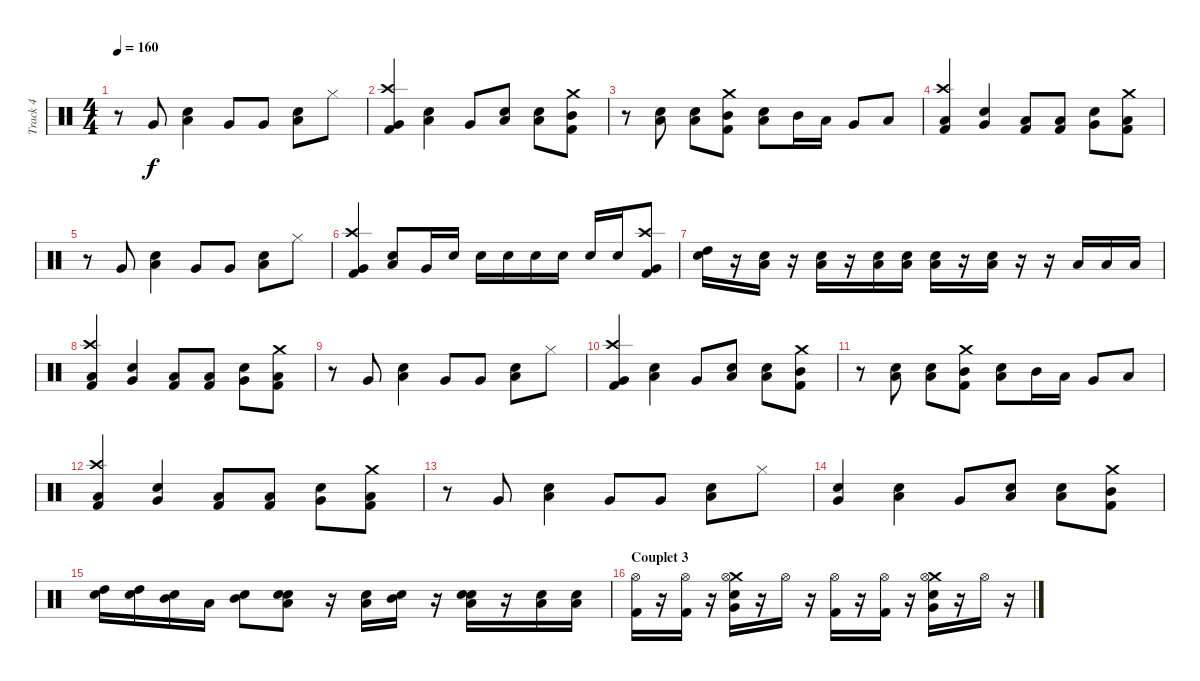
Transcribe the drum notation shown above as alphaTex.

\track ("Track 4" "Track 4") {instrument percussion}
\staff {score}
\articulation defaults
\ts (4 4)
\tempo 160
\clef neutral
\ks c
r.8{dy f} "Very Low Tom (hit)".8 ("Low Tom (hit)" "Electric Snare (hit)").4 "Very Low Tom (hit)".8 "Very Low Tom (hit)".8 ("Low Tom (hit)" "Electric Snare (hit)").8 "Hi-Hat (closed)".8 |
("Very Low Tom (hit)" "Crash high (hit)" "Kick (hit) 2").4 ("Low Tom (hit)" "Electric Snare (hit)").4 "Very Low Tom (hit)".8 ("Low Tom (hit)" "Electric Snare (hit)").8 ("Low Tom (hit)" "Electric Snare (hit)").8 ("Mid Tom (hit)" "Kick (hit) 2" "Crash medium (hit)").8 |
r.8 ("Low Tom (hit)" "Electric Snare (hit)").8 ("Low Tom (hit)" "Electric Snare (hit)").8 ("Mid Tom (hit)" "Kick (hit) 2" "Crash medium (hit)").8 ("Low Tom (hit)" "Electric Snare (hit)").8 "Mid Tom (hit)".16 "Low Tom (hit)".16 "Very Low Tom (hit)".8 "Low Floor Tom (hit)".8 |
("Low Tom (hit)" "Crash high (hit)" "Kick (hit) 2").4 ("Electric Snare (hit)" "Very Low Tom (hit)").4 ("Low Tom (hit)" "Kick (hit) 2").8 ("Low Tom (hit)" "Kick (hit) 2").8 ("Electric Snare (hit)" "Very Low Tom (hit)").8 ("Low Tom (hit)" "Kick (hit) 2" "Crash medium (hit)").8 |
r.8 "Very Low Tom (hit)".8 ("Low Tom (hit)" "Electric Snare (hit)").4 "Very Low Tom (hit)".8 "Very Low Tom (hit)".8 ("Low Tom (hit)" "Electric Snare (hit)").8 "Hi-Hat (closed)".8 |
("Very Low Tom (hit)" "Crash high (hit)" "Kick (hit) 2").4 ("Low Tom (hit)" "Electric Snare (hit)").8 "Very Low Tom (hit)".16 "Electric Snare (hit)".16 "Electric Snare (hit)".16 "Electric Snare (hit)".16 "Electric Snare (hit)".16 "Electric Snare (hit)".16 "Electric Snare (hit)".16 "Electric Snare (hit)".16 ("Very Low Tom (hit)" "Kick (hit) 2" "Crash high (hit)").8 |
("High Tom (hit)" "Electric Snare (hit)").16 r.16 ("Low Tom (hit)" "Electric Snare (hit)").16 r.16 ("Low Floor Tom (hit)" "Electric Snare (hit)").16 r.16 ("Snare (hit) 2" "Low Floor Tom (hit)").16 ("Snare (hit) 2" "Low Floor Tom (hit)").16 ("Snare (hit) 2" "Low Floor Tom (hit)").16 r.16 ("Low Tom (hit)" "Electric Snare (hit)").16 r.16 r.16 "Low Floor Tom (hit)".16 "Low Floor Tom (hit)".16 "Low Floor Tom (hit)".16 |
("Low Tom (hit)" "Crash high (hit)" "Kick (hit) 2").4 ("Electric Snare (hit)" "Very Low Tom (hit)").4 ("Low Tom (hit)" "Kick (hit) 2").8 ("Low Tom (hit)" "Kick (hit) 2").8 ("Electric Snare (hit)" "Very Low Tom (hit)").8 ("Low Tom (hit)" "Kick (hit) 2" "Crash medium (hit)").8 |
r.8 "Very Low Tom (hit)".8 ("Low Tom (hit)" "Electric Snare (hit)").4 "Very Low Tom (hit)".8 "Very Low Tom (hit)".8 ("Low Tom (hit)" "Electric Snare (hit)").8 "Hi-Hat (closed)".8 |
("Very Low Tom (hit)" "Crash high (hit)" "Kick (hit) 2").4 ("Low Tom (hit)" "Electric Snare (hit)").4 "Very Low Tom (hit)".8 ("Low Tom (hit)" "Electric Snare (hit)").8 ("Low Tom (hit)" "Electric Snare (hit)").8 ("Mid Tom (hit)" "Kick (hit) 2" "Crash medium (hit)").8 |
r.8 ("Low Tom (hit)" "Electric Snare (hit)").8 ("Low Tom (hit)" "Electric Snare (hit)").8 ("Mid Tom (hit)" "Kick (hit) 2" "Crash medium (hit)").8 ("Low Tom (hit)" "Electric Snare (hit)").8 "Mid Tom (hit)".16 "Low Tom (hit)".16 "Very Low Tom (hit)".8 "Low Floor Tom (hit)".8 |
("Low Tom (hit)" "Crash high (hit)" "Kick (hit) 2").4 ("Electric Snare (hit)" "Very Low Tom (hit)").4 ("Low Tom (hit)" "Kick (hit) 2").8 ("Low Tom (hit)" "Kick (hit) 2").8 ("Electric Snare (hit)" "Very Low Tom (hit)").8 ("Low Tom (hit)" "Kick (hit) 2" "Crash medium (hit)").8 |
r.8 "Very Low Tom (hit)".8 ("Low Tom (hit)" "Electric Snare (hit)").4 "Very Low Tom (hit)".8 "Very Low Tom (hit)".8 ("Low Tom (hit)" "Electric Snare (hit)").8 "Hi-Hat (closed)".8 |
("Very Low Tom (hit)" "Electric Snare (hit)").4 ("Low Tom (hit)" "Electric Snare (hit)").4 "Very Low Tom (hit)".8 ("Low Tom (hit)" "Electric Snare (hit)").8 ("Low Tom (hit)" "Electric Snare (hit)").8 ("Mid Tom (hit)" "Kick (hit) 2" "Crash medium (hit)").8 |
("High Tom (hit)" "Electric Snare (hit)").16 ("High Tom (hit)" "Electric Snare (hit)").16 ("Mid Tom (hit)" "Electric Snare (hit)").16 "Low Tom (hit)".16 ("Mid Tom (hit)" "Electric Snare (hit)").8 ("Low Tom (hit)" "Electric Snare (hit)" "Snare (hit) 2").8 r.16 ("Low Tom (hit)" "Electric Snare (hit)").16 ("Mid Tom (hit)" "Electric Snare (hit)").16 r.16 ("Low Tom (hit)" "Electric Snare (hit)" "Snare (hit) 2").16 r.16 ("Low Tom (hit)" "Electric Snare (hit)").16 ("Low Tom (hit)" "Electric Snare (hit)").16 |
\section ("" "Couplet 3")
("Kick (hit) 2" "Hi-Hat (open)").16 r.16 ("Kick (hit) 2" "Hi-Hat (open)").16 r.16 ("Very Low Tom (hit)" "Electric Snare (hit)" "Crash medium (hit)" "Hi-Hat (open)").16 r.16 "Hi-Hat (open)".16 r.16 ("Kick (hit) 2" "Hi-Hat (open)").16 r.16 ("Kick (hit) 2" "Hi-Hat (open)").16 r.16 ("Very Low Tom (hit)" "Electric Snare (hit)" "Crash medium (hit)" "Hi-Hat (open)").16 r.16 "Hi-Hat (open)".16 r.16
